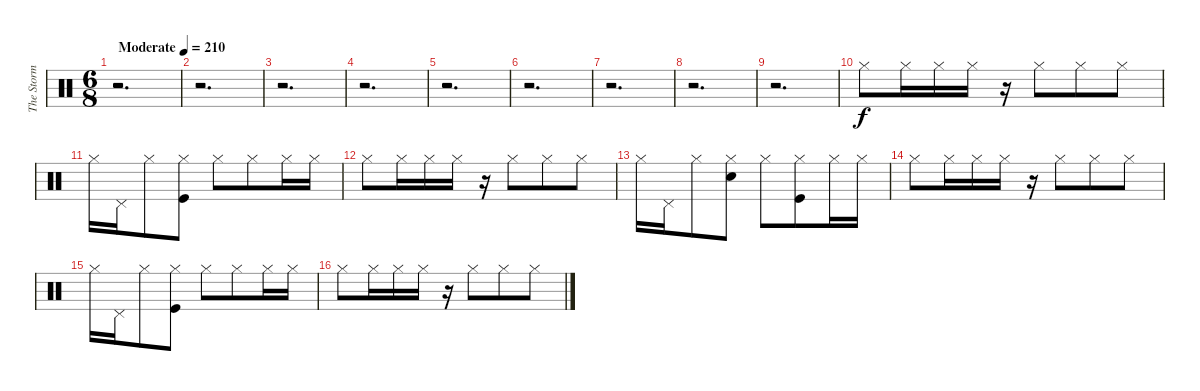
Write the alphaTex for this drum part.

\track ("The Storm" "The Storm") {instrument percussion}
\staff {score}
\articulation defaults
\ts (6 8)
\tempo (210 "Moderate")
\clef neutral
\ks c
r.2{d dy f} |
r.2{d} |
r.2{d} |
r.2{d} |
r.2{d} |
r.2{d} |
r.2{d} |
r.2{d} |
r.2{d} |
"Hi-Hat (closed)".8 "Hi-Hat (closed)".16 "Hi-Hat (closed)".16 "Hi-Hat (closed)".16 r.16 "Hi-Hat (closed)".8 "Hi-Hat (closed)".8 "Hi-Hat (closed)".8 |
"Hi-Hat (closed)".16 "Pedal Hi-Hat (hit)".16 "Hi-Hat (closed)".8 ("Kick (hit)" "Hi-Hat (closed)").8 "Hi-Hat (closed)".8 "Hi-Hat (closed)".8 "Hi-Hat (closed)".16 "Hi-Hat (closed)".16 |
"Hi-Hat (closed)".8 "Hi-Hat (closed)".16 "Hi-Hat (closed)".16 "Hi-Hat (closed)".16 r.16 "Hi-Hat (closed)".8 "Hi-Hat (closed)".8 "Hi-Hat (closed)".8 |
"Hi-Hat (closed)".16 "Pedal Hi-Hat (hit)".16 "Hi-Hat (closed)".8 ("Hi-Hat (closed)" "Electric Snare (hit)").8 "Hi-Hat (closed)".8 ("Hi-Hat (closed)" "Kick (hit)").8 "Hi-Hat (closed)".16 "Hi-Hat (closed)".16 |
"Hi-Hat (closed)".8 "Hi-Hat (closed)".16 "Hi-Hat (closed)".16 "Hi-Hat (closed)".16 r.16 "Hi-Hat (closed)".8 "Hi-Hat (closed)".8 "Hi-Hat (closed)".8 |
"Hi-Hat (closed)".16 "Pedal Hi-Hat (hit)".16 "Hi-Hat (closed)".8 ("Kick (hit)" "Hi-Hat (closed)").8 "Hi-Hat (closed)".8 "Hi-Hat (closed)".8 "Hi-Hat (closed)".16 "Hi-Hat (closed)".16 |
"Hi-Hat (closed)".8 "Hi-Hat (closed)".16 "Hi-Hat (closed)".16 "Hi-Hat (closed)".16 r.16 "Hi-Hat (closed)".8 "Hi-Hat (closed)".8 "Hi-Hat (closed)".8
